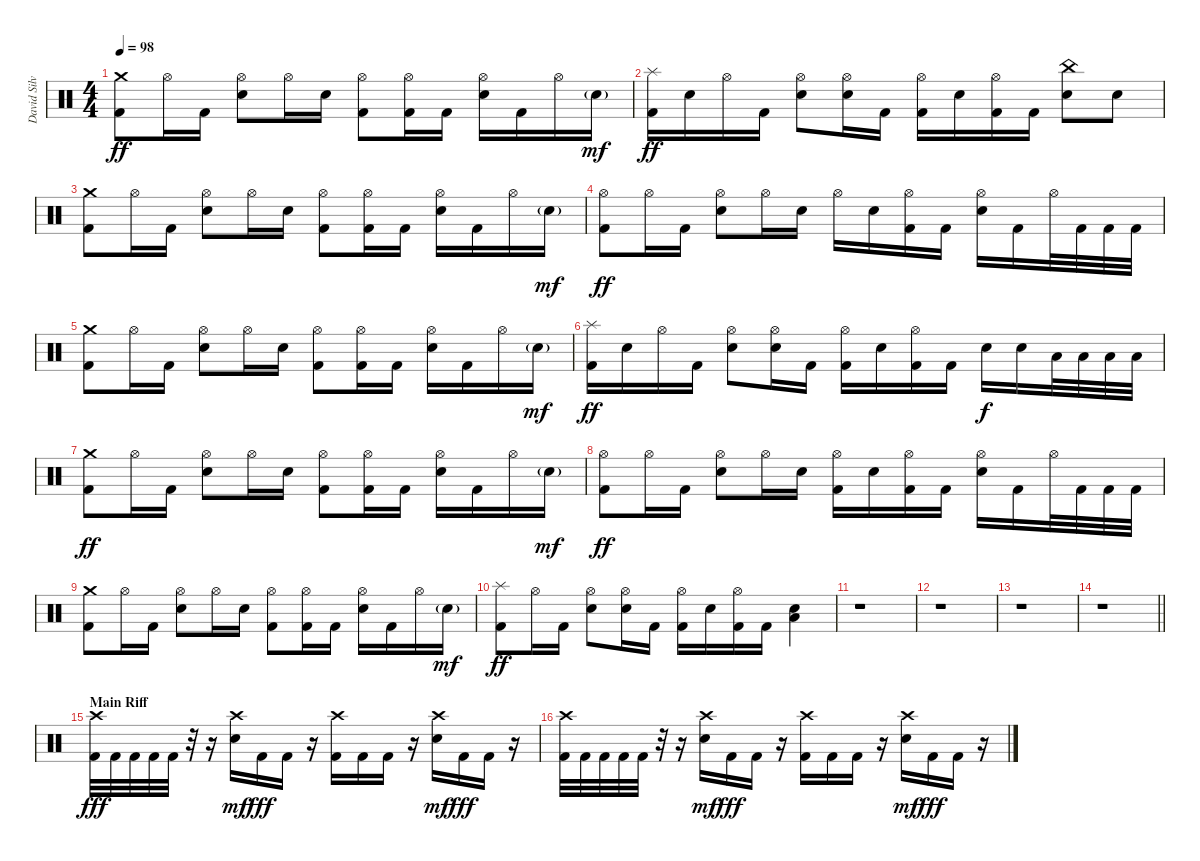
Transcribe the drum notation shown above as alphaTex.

\track ("David Silveria" "David Silv") {instrument percussion}
\staff {score}
\articulation defaults
\ts (4 4)
\tempo 98
\clef neutral
\ks c
("Crash medium (hit)" "Kick (hit) 2").8{dy ff} "Hi-Hat (open)".16 "Kick (hit) 2".16 ("Hi-Hat (open)" "Snare (hit) 2").8 "Hi-Hat (open)".16 "Snare (hit) 2".16 ("Hi-Hat (open)" "Kick (hit) 2").8 ("Hi-Hat (open)" "Kick (hit) 2").16 "Kick (hit) 2".16 ("Hi-Hat (open)" "Snare (hit) 2").16 "Kick (hit) 2".16 "Hi-Hat (open)".16 "Snare (hit) 2"{g}.16{dy mf} |
("Splash (hit)" "Kick (hit) 2").16{dy ff} "Snare (hit) 2".16 "Hi-Hat (open)".16 "Kick (hit) 2".16 ("Hi-Hat (open)" "Snare (hit) 2").8 ("Hi-Hat (open)" "Snare (hit) 2").16 "Kick (hit) 2".16 ("Hi-Hat (open)" "Kick (hit) 2").16 "Snare (hit) 2".16 ("Hi-Hat (open)" "Kick (hit) 2").16 "Kick (hit) 2".16 ("China (hit)" "Snare (hit) 2").8 "Snare (hit) 2".8 |
("Crash medium (hit)" "Kick (hit) 2").8 "Hi-Hat (open)".16 "Kick (hit) 2".16 ("Hi-Hat (open)" "Snare (hit) 2").8 "Hi-Hat (open)".16 "Snare (hit) 2".16 ("Hi-Hat (open)" "Kick (hit) 2").8 ("Hi-Hat (open)" "Kick (hit) 2").16 "Kick (hit) 2".16 ("Hi-Hat (open)" "Snare (hit) 2").16 "Kick (hit) 2".16 "Hi-Hat (open)".16 "Snare (hit) 2"{g}.16{dy mf} |
("Hi-Hat (open)" "Kick (hit) 2").8{dy ff} "Hi-Hat (open)".16 "Kick (hit) 2".16 ("Hi-Hat (open)" "Snare (hit) 2").8 "Hi-Hat (open)".16 "Snare (hit) 2".16 "Hi-Hat (open)".16 "Snare (hit) 2".16 ("Hi-Hat (open)" "Kick (hit) 2").16 "Kick (hit) 2".16 ("Hi-Hat (open)" "Snare (hit) 2").16 "Kick (hit) 2".16 "Hi-Hat (open)".32 "Kick (hit) 2".32 "Kick (hit) 2".32 "Kick (hit) 2".32 |
("Crash medium (hit)" "Kick (hit) 2").8 "Hi-Hat (open)".16 "Kick (hit) 2".16 ("Hi-Hat (open)" "Snare (hit) 2").8 "Hi-Hat (open)".16 "Snare (hit) 2".16 ("Hi-Hat (open)" "Kick (hit) 2").8 ("Hi-Hat (open)" "Kick (hit) 2").16 "Kick (hit) 2".16 ("Hi-Hat (open)" "Snare (hit) 2").16 "Kick (hit) 2".16 "Hi-Hat (open)".16 "Snare (hit) 2"{g}.16{dy mf} |
("Splash (hit)" "Kick (hit) 2").16{dy ff} "Snare (hit) 2".16 "Hi-Hat (open)".16 "Kick (hit) 2".16 ("Hi-Hat (open)" "Snare (hit) 2").8 ("Hi-Hat (open)" "Snare (hit) 2").16 "Kick (hit) 2".16 ("Hi-Hat (open)" "Kick (hit) 2").16 "Snare (hit) 2".16 ("Hi-Hat (open)" "Kick (hit) 2").16 "Kick (hit) 2".16 "Snare (hit) 2".16{dy f} "Snare (hit) 2".16 "Low Floor Tom (hit)".32 "Low Floor Tom (hit)".32 "Low Floor Tom (hit)".32 "Low Floor Tom (hit)".32 |
("Crash medium (hit)" "Kick (hit) 2").8{dy ff} "Hi-Hat (open)".16 "Kick (hit) 2".16 ("Hi-Hat (open)" "Snare (hit) 2").8 "Hi-Hat (open)".16 "Snare (hit) 2".16 ("Hi-Hat (open)" "Kick (hit) 2").8 ("Hi-Hat (open)" "Kick (hit) 2").16 "Kick (hit) 2".16 ("Hi-Hat (open)" "Snare (hit) 2").16 "Kick (hit) 2".16 "Hi-Hat (open)".16 "Snare (hit) 2"{g}.16{dy mf} |
("Hi-Hat (open)" "Kick (hit) 2").8{dy ff} "Hi-Hat (open)".16 "Kick (hit) 2".16 ("Hi-Hat (open)" "Snare (hit) 2").8 "Hi-Hat (open)".16 "Snare (hit) 2".16 ("Hi-Hat (open)" "Kick (hit) 2").16 "Snare (hit) 2".16 ("Hi-Hat (open)" "Kick (hit) 2").16 "Kick (hit) 2".16 ("Hi-Hat (open)" "Snare (hit) 2").16 "Kick (hit) 2".16 "Hi-Hat (open)".32 "Kick (hit) 2".32 "Kick (hit) 2".32 "Kick (hit) 2".32 |
("Crash medium (hit)" "Kick (hit) 2").8 "Hi-Hat (open)".16 "Kick (hit) 2".16 ("Hi-Hat (open)" "Snare (hit) 2").8 "Hi-Hat (open)".16 "Snare (hit) 2".16 ("Hi-Hat (open)" "Kick (hit) 2").8 ("Hi-Hat (open)" "Kick (hit) 2").16 "Kick (hit) 2".16 ("Hi-Hat (open)" "Snare (hit) 2").16 "Kick (hit) 2".16 "Hi-Hat (open)".16 "Snare (hit) 2"{g}.16{dy mf} |
("Splash (hit)" "Kick (hit) 2").8{dy ff} "Hi-Hat (open)".16 "Kick (hit) 2".16 ("Hi-Hat (open)" "Snare (hit) 2").8 ("Hi-Hat (open)" "Snare (hit) 2").16 "Kick (hit) 2".16 ("Hi-Hat (open)" "Kick (hit) 2").16 "Snare (hit) 2".16 ("Hi-Hat (open)" "Kick (hit) 2").16 "Kick (hit) 2".16 ("Low Floor Tom (hit)" "Snare (hit) 2").4 |
r.1 |
r.1 |
r.1 |
\barLineRight lightlight
r.1 |
\section ("" "Main Riff")
("Crash high (hit)" "Kick (hit) 2").32{dy fff} "Kick (hit) 2".32 "Kick (hit) 2".32 "Kick (hit) 2".32 "Kick (hit) 2".32 r.32 r.16 ("Crash high (hit)" "Snare (hit) 2").16{dy mf} "Kick (hit) 2".16{dy fff} "Kick (hit) 2".16 r.16 ("Crash high (hit)" "Kick (hit) 2").16 "Kick (hit) 2".16 "Kick (hit) 2".16 r.16 ("Crash high (hit)" "Snare (hit) 2").16{dy mf} "Kick (hit) 2".16{dy fff} "Kick (hit) 2".16 r.16 |
("Crash high (hit)" "Kick (hit) 2").32 "Kick (hit) 2".32 "Kick (hit) 2".32 "Kick (hit) 2".32 "Kick (hit) 2".32 r.32 r.16 ("Crash high (hit)" "Snare (hit) 2").16{dy mf} "Kick (hit) 2".16{dy fff} "Kick (hit) 2".16 r.16 ("Crash high (hit)" "Kick (hit) 2").16 "Kick (hit) 2".16 "Kick (hit) 2".16 r.16 ("Crash high (hit)" "Snare (hit) 2").16{dy mf} "Kick (hit) 2".16{dy fff} "Kick (hit) 2".16 r.16
